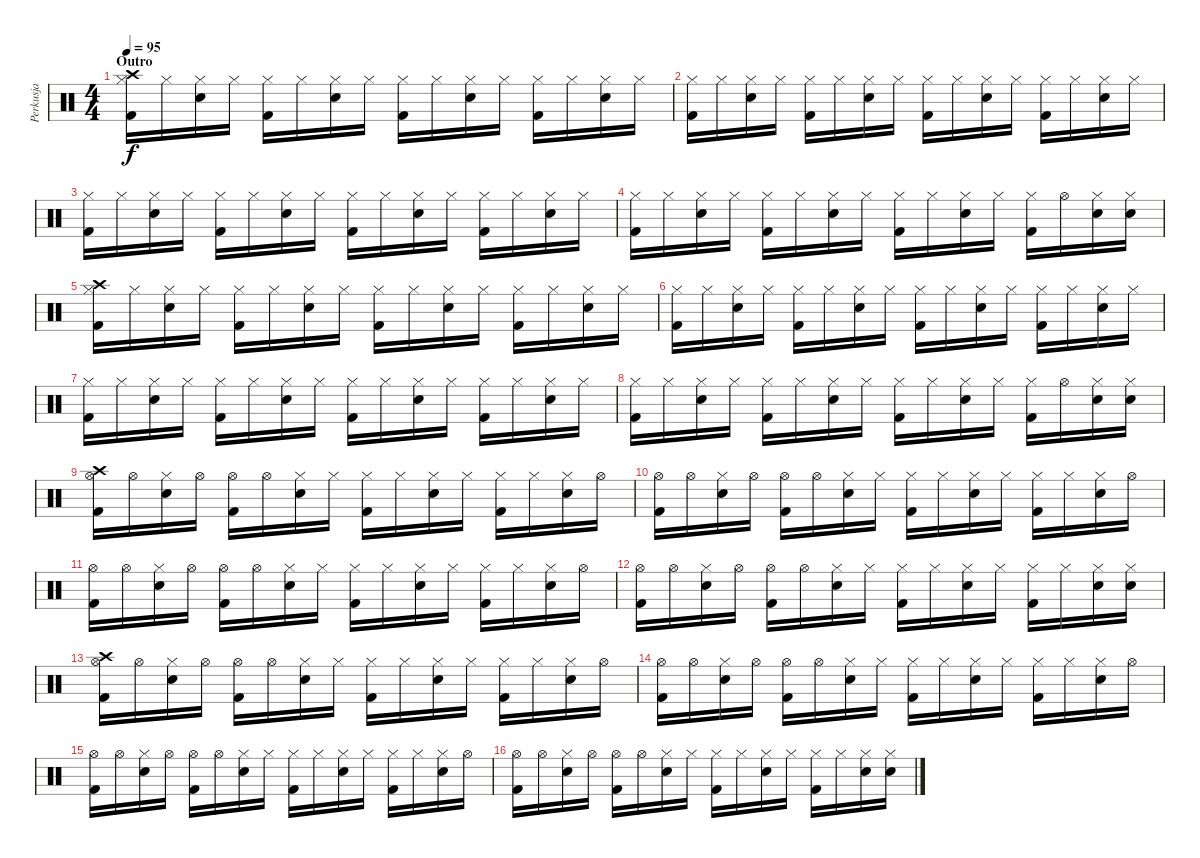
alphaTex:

\track ("Perkusja" "Perkusja") {instrument percussion}
\staff {score}
\articulation defaults
\ts (4 4)
\section ("" "Outro")
\tempo 95
\clef neutral
\ks c
("Hi-Hat (closed)" "Kick (hit) 2" "Crash high (hit)").16{dy f} "Hi-Hat (closed)".16 ("Hi-Hat (closed)" "Snare (hit) 2").16 "Hi-Hat (closed)".16 ("Hi-Hat (closed)" "Kick (hit) 2").16 "Hi-Hat (closed)".16 ("Hi-Hat (closed)" "Snare (hit) 2").16 "Hi-Hat (closed)".16 ("Hi-Hat (closed)" "Kick (hit) 2").16 "Hi-Hat (closed)".16 ("Hi-Hat (closed)" "Snare (hit) 2").16 "Hi-Hat (closed)".16 ("Hi-Hat (closed)" "Kick (hit) 2").16 "Hi-Hat (closed)".16 ("Hi-Hat (closed)" "Snare (hit) 2").16 "Hi-Hat (closed)".16 |
("Hi-Hat (closed)" "Kick (hit) 2").16 "Hi-Hat (closed)".16 ("Hi-Hat (closed)" "Snare (hit) 2").16 "Hi-Hat (closed)".16 ("Hi-Hat (closed)" "Kick (hit) 2").16 "Hi-Hat (closed)".16 ("Hi-Hat (closed)" "Snare (hit) 2").16 "Hi-Hat (closed)".16 ("Hi-Hat (closed)" "Kick (hit) 2").16 "Hi-Hat (closed)".16 ("Hi-Hat (closed)" "Snare (hit) 2").16 "Hi-Hat (closed)".16 ("Hi-Hat (closed)" "Kick (hit) 2").16 "Hi-Hat (closed)".16 ("Hi-Hat (closed)" "Snare (hit) 2").16 "Hi-Hat (closed)".16 |
("Hi-Hat (closed)" "Kick (hit) 2").16 "Hi-Hat (closed)".16 ("Hi-Hat (closed)" "Snare (hit) 2").16 "Hi-Hat (closed)".16 ("Hi-Hat (closed)" "Kick (hit) 2").16 "Hi-Hat (closed)".16 ("Hi-Hat (closed)" "Snare (hit) 2").16 "Hi-Hat (closed)".16 ("Hi-Hat (closed)" "Kick (hit) 2").16 "Hi-Hat (closed)".16 ("Hi-Hat (closed)" "Snare (hit) 2").16 "Hi-Hat (closed)".16 ("Hi-Hat (closed)" "Kick (hit) 2").16 "Hi-Hat (closed)".16 ("Hi-Hat (closed)" "Snare (hit) 2").16 "Hi-Hat (closed)".16 |
("Hi-Hat (closed)" "Kick (hit) 2").16 "Hi-Hat (closed)".16 ("Hi-Hat (closed)" "Snare (hit) 2").16 "Hi-Hat (closed)".16 ("Hi-Hat (closed)" "Kick (hit) 2").16 "Hi-Hat (closed)".16 ("Hi-Hat (closed)" "Snare (hit) 2").16 "Hi-Hat (closed)".16 ("Hi-Hat (closed)" "Kick (hit) 2").16 "Hi-Hat (closed)".16 ("Hi-Hat (closed)" "Snare (hit) 2").16 "Hi-Hat (closed)".16 ("Hi-Hat (closed)" "Kick (hit) 2").16 "Hi-Hat (open)".16 ("Hi-Hat (closed)" "Snare (hit) 2").16 ("Hi-Hat (closed)" "Snare (hit) 2").16 |
("Hi-Hat (closed)" "Kick (hit) 2" "Crash high (hit)").16 "Hi-Hat (closed)".16 ("Hi-Hat (closed)" "Snare (hit) 2").16 "Hi-Hat (closed)".16 ("Hi-Hat (closed)" "Kick (hit) 2").16 "Hi-Hat (closed)".16 ("Hi-Hat (closed)" "Snare (hit) 2").16 "Hi-Hat (closed)".16 ("Hi-Hat (closed)" "Kick (hit) 2").16 "Hi-Hat (closed)".16 ("Hi-Hat (closed)" "Snare (hit) 2").16 "Hi-Hat (closed)".16 ("Hi-Hat (closed)" "Kick (hit) 2").16 "Hi-Hat (closed)".16 ("Hi-Hat (closed)" "Snare (hit) 2").16 "Hi-Hat (closed)".16 |
("Hi-Hat (closed)" "Kick (hit) 2").16 "Hi-Hat (closed)".16 ("Hi-Hat (closed)" "Snare (hit) 2").16 "Hi-Hat (closed)".16 ("Hi-Hat (closed)" "Kick (hit) 2").16 "Hi-Hat (closed)".16 ("Hi-Hat (closed)" "Snare (hit) 2").16 "Hi-Hat (closed)".16 ("Hi-Hat (closed)" "Kick (hit) 2").16 "Hi-Hat (closed)".16 ("Hi-Hat (closed)" "Snare (hit) 2").16 "Hi-Hat (closed)".16 ("Hi-Hat (closed)" "Kick (hit) 2").16 "Hi-Hat (closed)".16 ("Hi-Hat (closed)" "Snare (hit) 2").16 "Hi-Hat (closed)".16 |
("Hi-Hat (closed)" "Kick (hit) 2").16 "Hi-Hat (closed)".16 ("Hi-Hat (closed)" "Snare (hit) 2").16 "Hi-Hat (closed)".16 ("Hi-Hat (closed)" "Kick (hit) 2").16 "Hi-Hat (closed)".16 ("Hi-Hat (closed)" "Snare (hit) 2").16 "Hi-Hat (closed)".16 ("Hi-Hat (closed)" "Kick (hit) 2").16 "Hi-Hat (closed)".16 ("Hi-Hat (closed)" "Snare (hit) 2").16 "Hi-Hat (closed)".16 ("Hi-Hat (closed)" "Kick (hit) 2").16 "Hi-Hat (closed)".16 ("Hi-Hat (closed)" "Snare (hit) 2").16 "Hi-Hat (closed)".16 |
("Hi-Hat (closed)" "Kick (hit) 2").16 "Hi-Hat (closed)".16 ("Hi-Hat (closed)" "Snare (hit) 2").16 "Hi-Hat (closed)".16 ("Hi-Hat (closed)" "Kick (hit) 2").16 "Hi-Hat (closed)".16 ("Hi-Hat (closed)" "Snare (hit) 2").16 "Hi-Hat (closed)".16 ("Hi-Hat (closed)" "Kick (hit) 2").16 "Hi-Hat (closed)".16 ("Hi-Hat (closed)" "Snare (hit) 2").16 "Hi-Hat (closed)".16 ("Hi-Hat (closed)" "Kick (hit) 2").16 "Hi-Hat (open)".16 ("Hi-Hat (closed)" "Snare (hit) 2").16 ("Hi-Hat (closed)" "Snare (hit) 2").16 |
("Hi-Hat (open)" "Kick (hit) 2" "Crash high (hit)").16 "Hi-Hat (open)".16 ("Hi-Hat (closed)" "Snare (hit) 2").16 "Hi-Hat (open)".16 ("Hi-Hat (open)" "Kick (hit) 2").16 "Hi-Hat (open)".16 ("Hi-Hat (closed)" "Snare (hit) 2").16 "Hi-Hat (closed)".16 ("Hi-Hat (closed)" "Kick (hit) 2").16 "Hi-Hat (closed)".16 ("Hi-Hat (closed)" "Snare (hit) 2").16 "Hi-Hat (closed)".16 ("Hi-Hat (closed)" "Kick (hit) 2").16 "Hi-Hat (closed)".16 ("Hi-Hat (closed)" "Snare (hit) 2").16 "Hi-Hat (open)".16 |
("Hi-Hat (open)" "Kick (hit) 2").16 "Hi-Hat (open)".16 ("Hi-Hat (closed)" "Snare (hit) 2").16 "Hi-Hat (open)".16 ("Hi-Hat (open)" "Kick (hit) 2").16 "Hi-Hat (open)".16 ("Hi-Hat (closed)" "Snare (hit) 2").16 "Hi-Hat (closed)".16 ("Hi-Hat (closed)" "Kick (hit) 2").16 "Hi-Hat (closed)".16 ("Hi-Hat (closed)" "Snare (hit) 2").16 "Hi-Hat (closed)".16 ("Hi-Hat (closed)" "Kick (hit) 2").16 "Hi-Hat (closed)".16 ("Hi-Hat (closed)" "Snare (hit) 2").16 "Hi-Hat (open)".16 |
("Hi-Hat (open)" "Kick (hit) 2").16 "Hi-Hat (open)".16 ("Hi-Hat (closed)" "Snare (hit) 2").16 "Hi-Hat (open)".16 ("Hi-Hat (open)" "Kick (hit) 2").16 "Hi-Hat (open)".16 ("Hi-Hat (closed)" "Snare (hit) 2").16 "Hi-Hat (closed)".16 ("Hi-Hat (closed)" "Kick (hit) 2").16 "Hi-Hat (closed)".16 ("Hi-Hat (closed)" "Snare (hit) 2").16 "Hi-Hat (closed)".16 ("Hi-Hat (closed)" "Kick (hit) 2").16 "Hi-Hat (closed)".16 ("Hi-Hat (closed)" "Snare (hit) 2").16 "Hi-Hat (open)".16 |
("Hi-Hat (open)" "Kick (hit) 2").16 "Hi-Hat (open)".16 ("Hi-Hat (closed)" "Snare (hit) 2").16 "Hi-Hat (open)".16 ("Hi-Hat (open)" "Kick (hit) 2").16 "Hi-Hat (open)".16 ("Hi-Hat (closed)" "Snare (hit) 2").16 "Hi-Hat (closed)".16 ("Hi-Hat (closed)" "Kick (hit) 2").16 "Hi-Hat (closed)".16 ("Hi-Hat (closed)" "Snare (hit) 2").16 "Hi-Hat (closed)".16 ("Hi-Hat (closed)" "Kick (hit) 2").16 "Hi-Hat (closed)".16 ("Hi-Hat (closed)" "Snare (hit) 2").16 ("Hi-Hat (closed)" "Snare (hit) 2").16 |
("Hi-Hat (open)" "Kick (hit) 2" "Crash high (hit)").16 "Hi-Hat (open)".16 ("Hi-Hat (closed)" "Snare (hit) 2").16 "Hi-Hat (open)".16 ("Hi-Hat (open)" "Kick (hit) 2").16 "Hi-Hat (open)".16 ("Hi-Hat (closed)" "Snare (hit) 2").16 "Hi-Hat (closed)".16 ("Hi-Hat (closed)" "Kick (hit) 2").16 "Hi-Hat (closed)".16 ("Hi-Hat (closed)" "Snare (hit) 2").16 "Hi-Hat (closed)".16 ("Hi-Hat (closed)" "Kick (hit) 2").16 "Hi-Hat (closed)".16 ("Hi-Hat (closed)" "Snare (hit) 2").16 "Hi-Hat (open)".16 |
("Hi-Hat (open)" "Kick (hit) 2").16 "Hi-Hat (open)".16 ("Hi-Hat (closed)" "Snare (hit) 2").16 "Hi-Hat (open)".16 ("Hi-Hat (open)" "Kick (hit) 2").16 "Hi-Hat (open)".16 ("Hi-Hat (closed)" "Snare (hit) 2").16 "Hi-Hat (closed)".16 ("Hi-Hat (closed)" "Kick (hit) 2").16 "Hi-Hat (closed)".16 ("Hi-Hat (closed)" "Snare (hit) 2").16 "Hi-Hat (closed)".16 ("Hi-Hat (closed)" "Kick (hit) 2").16 "Hi-Hat (closed)".16 ("Hi-Hat (closed)" "Snare (hit) 2").16 "Hi-Hat (open)".16 |
("Hi-Hat (open)" "Kick (hit) 2").16 "Hi-Hat (open)".16 ("Hi-Hat (closed)" "Snare (hit) 2").16 "Hi-Hat (open)".16 ("Hi-Hat (open)" "Kick (hit) 2").16 "Hi-Hat (open)".16 ("Hi-Hat (closed)" "Snare (hit) 2").16 "Hi-Hat (closed)".16 ("Hi-Hat (closed)" "Kick (hit) 2").16 "Hi-Hat (closed)".16 ("Hi-Hat (closed)" "Snare (hit) 2").16 "Hi-Hat (closed)".16 ("Hi-Hat (closed)" "Kick (hit) 2").16 "Hi-Hat (closed)".16 ("Hi-Hat (closed)" "Snare (hit) 2").16 "Hi-Hat (open)".16 |
("Hi-Hat (open)" "Kick (hit) 2").16 "Hi-Hat (open)".16 ("Hi-Hat (closed)" "Snare (hit) 2").16 "Hi-Hat (open)".16 ("Hi-Hat (open)" "Kick (hit) 2").16 "Hi-Hat (open)".16 ("Hi-Hat (closed)" "Snare (hit) 2").16 "Hi-Hat (closed)".16 ("Hi-Hat (closed)" "Kick (hit) 2").16 "Hi-Hat (closed)".16 ("Hi-Hat (closed)" "Snare (hit) 2").16 "Hi-Hat (closed)".16 ("Hi-Hat (closed)" "Kick (hit) 2").16 "Hi-Hat (closed)".16 ("Hi-Hat (closed)" "Snare (hit) 2").16 ("Hi-Hat (closed)" "Snare (hit) 2").16
